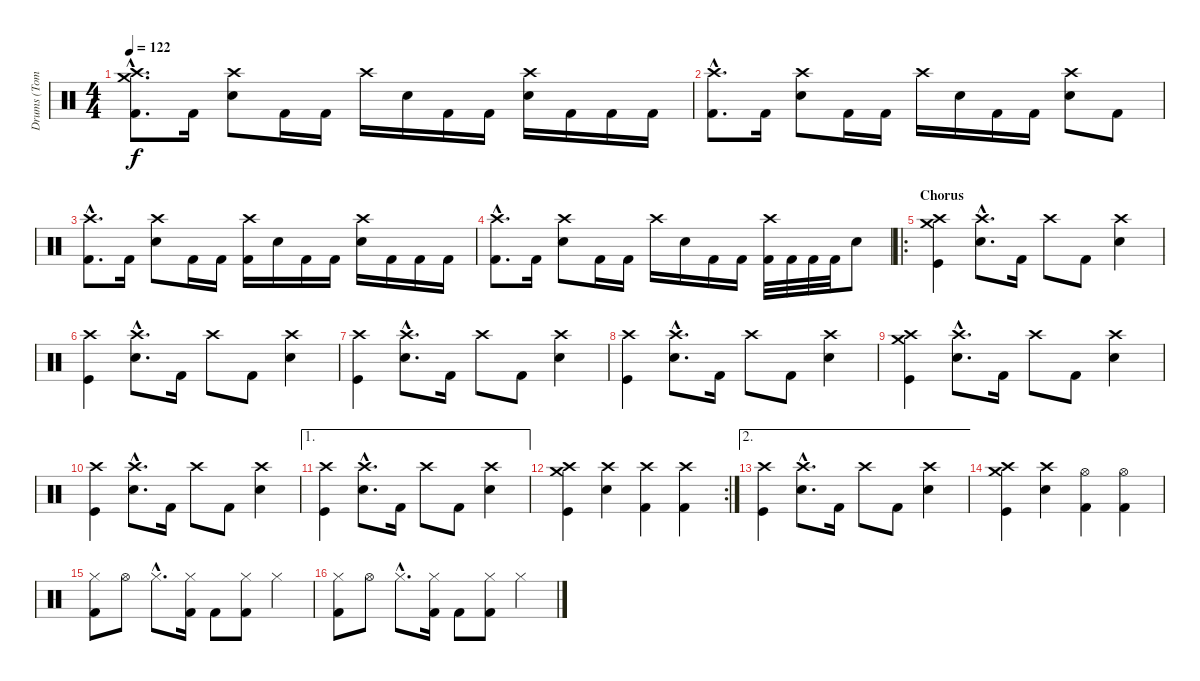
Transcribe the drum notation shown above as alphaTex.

\track ("Drums (Tommy Decker)" "Drums (Tom") {instrument percussion}
\staff {score}
\articulation defaults
\ts (4 4)
\tempo 122
\clef neutral
\ks c
("Crash high (hit)"{hac} "Crash medium (hit)"{hac} "Kick (hit) 2"{hac}).8{d dy f} "Kick (hit) 2".16 ("Crash high (hit)" "Snare (hit) 2").8 "Kick (hit) 2".16 "Kick (hit) 2".16 "Crash high (hit)".16 "Snare (hit) 2".16 "Kick (hit) 2".16 "Kick (hit) 2".16 ("Crash high (hit)" "Snare (hit) 2").16 "Kick (hit) 2".16 "Kick (hit) 2".16 "Kick (hit) 2".16 |
("Crash high (hit)"{hac} "Kick (hit) 2"{hac}).8{d} "Kick (hit) 2".16 ("Crash high (hit)" "Snare (hit) 2").8 "Kick (hit) 2".16 "Kick (hit) 2".16 "Crash high (hit)".16 "Snare (hit) 2".16 "Kick (hit) 2".16 "Kick (hit) 2".16 ("Crash high (hit)" "Snare (hit) 2").8 "Kick (hit) 2".8 |
("Crash high (hit)"{hac} "Kick (hit) 2"{hac}).8{d} "Kick (hit) 2".16 ("Crash high (hit)" "Snare (hit) 2").8 "Kick (hit) 2".16 "Kick (hit) 2".16 ("Crash high (hit)" "Kick (hit) 2").16 "Snare (hit) 2".16 "Kick (hit) 2".16 "Kick (hit) 2".16 ("Crash high (hit)" "Snare (hit) 2").16 "Kick (hit) 2".16 "Kick (hit) 2".16 "Kick (hit) 2".16 |
("Crash high (hit)"{hac} "Kick (hit) 2"{hac}).8{d} "Kick (hit) 2".16 ("Crash high (hit)" "Snare (hit) 2").8 "Kick (hit) 2".16 "Kick (hit) 2".16 "Crash high (hit)".16 "Snare (hit) 2".16 "Kick (hit) 2".16 "Kick (hit) 2".16 ("Crash high (hit)" "Kick (hit) 2").32 "Kick (hit) 2".32 "Kick (hit) 2".32 "Kick (hit) 2".32 "Snare (hit) 2".8 |
\ro
\section ("" "Chorus")
("Crash high (hit)" "Crash medium (hit)" "Kick (hit)").4 ("Crash high (hit)"{hac} "Snare (hit) 2"{hac}).8{d} "Kick (hit) 2".16 "Crash high (hit)".8 "Kick (hit) 2".8 ("Crash high (hit)" "Snare (hit) 2").4 |
("Crash high (hit)" "Kick (hit)").4 ("Crash high (hit)"{hac} "Snare (hit) 2"{hac}).8{d} "Kick (hit) 2".16 "Crash high (hit)".8 "Kick (hit) 2".8 ("Crash high (hit)" "Snare (hit) 2").4 |
("Crash high (hit)" "Kick (hit)").4 ("Crash high (hit)"{hac} "Snare (hit) 2"{hac}).8{d} "Kick (hit) 2".16 "Crash high (hit)".8 "Kick (hit) 2".8 ("Crash high (hit)" "Snare (hit) 2").4 |
("Crash high (hit)" "Kick (hit)").4 ("Crash high (hit)"{hac} "Snare (hit) 2"{hac}).8{d} "Kick (hit) 2".16 "Crash high (hit)".8 "Kick (hit) 2".8 ("Crash high (hit)" "Snare (hit) 2").4 |
("Crash high (hit)" "Crash medium (hit)" "Kick (hit)").4 ("Crash high (hit)"{hac} "Snare (hit) 2"{hac}).8{d} "Kick (hit) 2".16 "Crash high (hit)".8 "Kick (hit) 2".8 ("Crash high (hit)" "Snare (hit) 2").4 |
("Crash high (hit)" "Kick (hit)").4 ("Crash high (hit)"{hac} "Snare (hit) 2"{hac}).8{d} "Kick (hit) 2".16 "Crash high (hit)".8 "Kick (hit) 2".8 ("Crash high (hit)" "Snare (hit) 2").4 |
\ae 1
("Crash high (hit)" "Kick (hit)").4 ("Crash high (hit)"{hac} "Snare (hit) 2"{hac}).8{d} "Kick (hit) 2".16 "Crash high (hit)".8 "Kick (hit) 2".8 ("Crash high (hit)" "Snare (hit) 2").4 |
\rc 2
("Crash high (hit)" "Crash medium (hit)" "Kick (hit)").4 ("Crash high (hit)" "Snare (hit) 2").4 ("Crash high (hit)" "Kick (hit) 2").4 ("Crash high (hit)" "Kick (hit) 2").4 |
\ae 2
("Crash high (hit)" "Kick (hit)").4 ("Crash high (hit)"{hac} "Snare (hit) 2"{hac}).8{d} "Kick (hit) 2".16 "Crash high (hit)".8 "Kick (hit) 2".8 ("Crash high (hit)" "Snare (hit) 2").4 |
("Crash high (hit)" "Crash medium (hit)" "Kick (hit)").4 ("Crash high (hit)" "Snare (hit) 2").4 ("Hi-Hat (open)" "Kick (hit) 2").4 ("Hi-Hat (open)" "Kick (hit) 2").4 |
("Hi-Hat (closed)" "Kick (hit) 2").8 "Hi-Hat (open)".8 "Hi-Hat (closed)"{hac}.8{d} ("Hi-Hat (closed)" "Kick (hit) 2").16 "Kick (hit) 2".8 ("Hi-Hat (closed)" "Kick (hit) 2").8 "Hi-Hat (closed)".4 |
("Hi-Hat (closed)" "Kick (hit) 2").8 "Hi-Hat (open)".8 "Hi-Hat (closed)"{hac}.8{d} ("Hi-Hat (closed)" "Kick (hit) 2").16 "Kick (hit) 2".8 ("Hi-Hat (closed)" "Kick (hit) 2").8 "Hi-Hat (closed)".4
